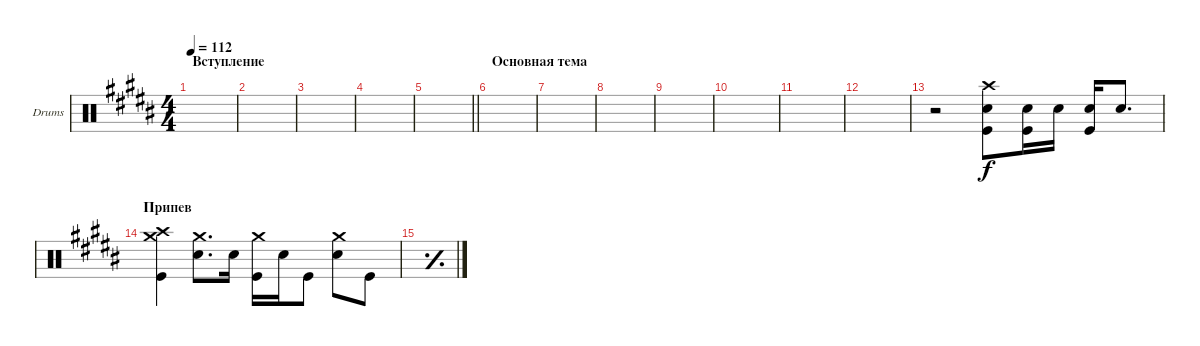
\bracketExtendMode groupsimilarinstruments
\firstSystemTrackNameOrientation horizontal
\otherSystemsTrackNameOrientation horizontal
\track ("Drumkit" "Drums") {instrument percussion}
\staff {score}
\articulation defaults
\ts (4 4)
\section ("" "Вступление")
\tempo 112
\clef neutral
\ks g#minor
|
|
|
|
\barLineRight lightlight
|
\section ("" "Основная тема")
|
|
|
|
|
|
|
r.2 ("Crash high (hit)" "Snare (hit) 2" "Kick (hit)").8 ("Snare (hit) 2" "Kick (hit)").16 "Snare (hit) 2".16 ("Snare (hit) 2" "Kick (hit)").16 "Snare (hit) 2".8{d} |
\section ("" "Припев")
("Crash high (hit)" "Kick (hit)" "Crash medium (hit)").4 ("Snare (hit) 2" "Crash medium (hit)").8{d} "Snare (hit) 2".16 ("Kick (hit)" "Crash medium (hit)").16 "Snare (hit) 2".16 "Kick (hit)".8 ("Snare (hit) 2" "Crash medium (hit)").8 "Kick (hit)".8 |
\simile simple
